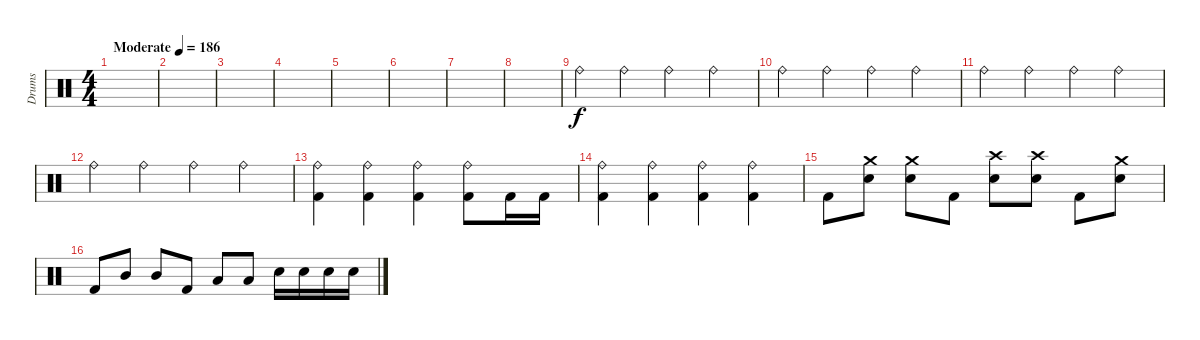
\track ("Drums" "Drums") {instrument percussion}
\staff {score}
\articulation defaults
\ts (4 4)
\tempo (186 "Moderate")
\clef neutral
\ks c
|
|
|
|
|
|
|
|
"Ride (bell)".4 "Ride (bell)".4 "Ride (bell)".4 "Ride (bell)".4 |
"Ride (bell)".4 "Ride (bell)".4 "Ride (bell)".4 "Ride (bell)".4 |
"Ride (bell)".4 "Ride (bell)".4 "Ride (bell)".4 "Ride (bell)".4 |
"Ride (bell)".4 "Ride (bell)".4 "Ride (bell)".4 "Ride (bell)".4 |
("Ride (bell)" "Kick (hit) 2").4 ("Ride (bell)" "Kick (hit) 2").4 ("Ride (bell)" "Kick (hit) 2").4 ("Ride (bell)" "Kick (hit) 2").8 "Kick (hit) 2".16 "Kick (hit) 2".16 |
("Ride (bell)" "Kick (hit) 2").4 ("Ride (bell)" "Kick (hit) 2").4 ("Ride (bell)" "Kick (hit) 2").4 ("Ride (bell)" "Kick (hit) 2").4 |
"Kick (hit) 2".8 ("Crash medium (hit)" "Snare (hit) 2").8 ("Crash medium (hit)" "Snare (hit) 2").8 "Kick (hit) 2".8 ("Crash high (hit)" "Snare (hit) 2").8 ("Crash high (hit)" "Snare (hit) 2").8 "Kick (hit) 2".8 ("Crash medium (hit)" "Snare (hit) 2").8 |
"Kick (hit) 2".8 "Mid Tom (hit)".8 "Mid Tom (hit)".8 "Kick (hit) 2".8 "Low Tom (hit)".8 "Low Tom (hit)".8 "Snare (hit) 2".16 "Snare (hit) 2".16 "Snare (hit) 2".16 "Snare (hit) 2".16
